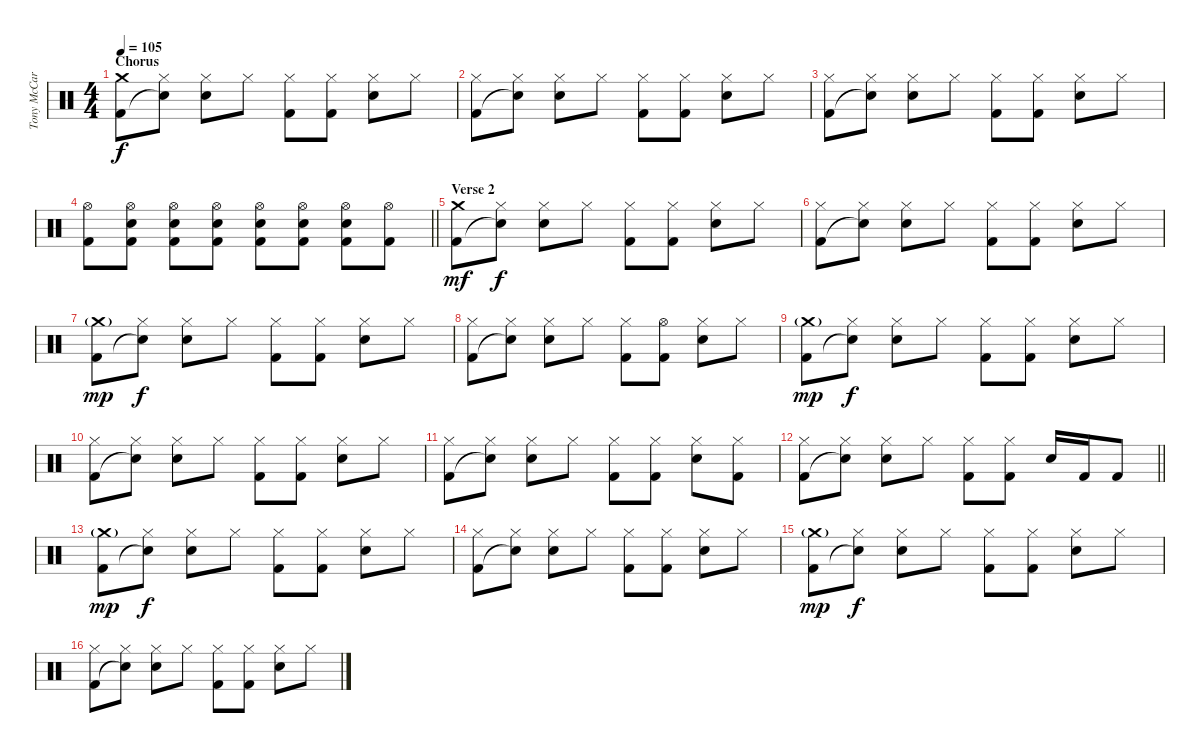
\track ("Tony McCaroll" "Tony McCar") {instrument percussion}
\staff {score}
\articulation defaults
\ts (4 4)
\section ("" "Chorus")
\tempo 105
\clef neutral
\ks c
("Crash medium (hit)" "Kick (hit) 2").8{dy f} ("Hi-Hat (closed)" "Snare (hit)"{t}).8 ("Hi-Hat (closed)" "Snare (hit) 2").8 "Hi-Hat (closed)".8 ("Hi-Hat (closed)" "Kick (hit) 2").8 ("Hi-Hat (closed)" "Kick (hit) 2").8 ("Hi-Hat (closed)" "Snare (hit) 2").8 "Hi-Hat (closed)".8 |
("Hi-Hat (closed)" "Kick (hit) 2").8 ("Hi-Hat (closed)" "Snare (hit)"{t}).8 ("Hi-Hat (closed)" "Snare (hit) 2").8 "Hi-Hat (closed)".8 ("Hi-Hat (closed)" "Kick (hit) 2").8 ("Hi-Hat (closed)" "Kick (hit) 2").8 ("Hi-Hat (closed)" "Snare (hit) 2").8 "Hi-Hat (closed)".8 |
("Hi-Hat (closed)" "Kick (hit) 2").8 ("Hi-Hat (closed)" "Snare (hit)"{t}).8 ("Hi-Hat (closed)" "Snare (hit) 2").8 "Hi-Hat (closed)".8 ("Hi-Hat (closed)" "Kick (hit) 2").8 ("Hi-Hat (closed)" "Kick (hit) 2").8 ("Hi-Hat (closed)" "Snare (hit) 2").8 "Hi-Hat (closed)".8 |
\barLineRight lightlight
("Hi-Hat (open)" "Kick (hit) 2").8 ("Hi-Hat (open)" "Snare (hit) 2" "Kick (hit) 2").8 ("Hi-Hat (open)" "Snare (hit) 2" "Kick (hit) 2").8 ("Hi-Hat (open)" "Snare (hit) 2" "Kick (hit) 2").8 ("Hi-Hat (open)" "Snare (hit) 2" "Kick (hit) 2").8 ("Hi-Hat (open)" "Snare (hit) 2" "Kick (hit) 2").8 ("Hi-Hat (open)" "Snare (hit) 2" "Kick (hit) 2").8 ("Hi-Hat (open)" "Kick (hit) 2").8 |
\section ("" "Verse 2")
("Crash medium (hit)" "Kick (hit) 2").8{dy mf} ("Hi-Hat (closed)" "Snare (hit)"{t}).8{dy f} ("Hi-Hat (closed)" "Snare (hit) 2").8 "Hi-Hat (closed)".8 ("Hi-Hat (closed)" "Kick (hit) 2").8 ("Hi-Hat (closed)" "Kick (hit) 2").8 ("Hi-Hat (closed)" "Snare (hit) 2").8 "Hi-Hat (closed)".8 |
("Hi-Hat (closed)" "Kick (hit) 2").8 ("Hi-Hat (closed)" "Snare (hit)"{t}).8 ("Hi-Hat (closed)" "Snare (hit) 2").8 "Hi-Hat (closed)".8 ("Hi-Hat (closed)" "Kick (hit) 2").8 ("Hi-Hat (closed)" "Kick (hit) 2").8 ("Hi-Hat (closed)" "Snare (hit) 2").8 "Hi-Hat (closed)".8 |
("Crash medium (hit)"{g} "Kick (hit) 2").8{dy mp} ("Hi-Hat (closed)" "Snare (hit)"{t}).8{dy f} ("Hi-Hat (closed)" "Snare (hit) 2").8 "Hi-Hat (closed)".8 ("Hi-Hat (closed)" "Kick (hit) 2").8 ("Hi-Hat (closed)" "Kick (hit) 2").8 ("Hi-Hat (closed)" "Snare (hit) 2").8 "Hi-Hat (closed)".8 |
("Hi-Hat (closed)" "Kick (hit) 2").8 ("Hi-Hat (closed)" "Snare (hit)"{t}).8 ("Hi-Hat (closed)" "Snare (hit) 2").8 "Hi-Hat (closed)".8 ("Hi-Hat (closed)" "Kick (hit) 2").8 ("Hi-Hat (open)" "Kick (hit) 2").8 ("Hi-Hat (closed)" "Snare (hit) 2").8 "Hi-Hat (closed)".8 |
("Crash medium (hit)"{g} "Kick (hit) 2").8{dy mp} ("Hi-Hat (closed)" "Snare (hit)"{t}).8{dy f} ("Hi-Hat (closed)" "Snare (hit) 2").8 "Hi-Hat (closed)".8 ("Hi-Hat (closed)" "Kick (hit) 2").8 ("Hi-Hat (closed)" "Kick (hit) 2").8 ("Hi-Hat (closed)" "Snare (hit) 2").8 "Hi-Hat (closed)".8 |
("Hi-Hat (closed)" "Kick (hit) 2").8 ("Hi-Hat (closed)" "Snare (hit)"{t}).8 ("Hi-Hat (closed)" "Snare (hit) 2").8 "Hi-Hat (closed)".8 ("Hi-Hat (closed)" "Kick (hit) 2").8 ("Hi-Hat (closed)" "Kick (hit) 2").8 ("Hi-Hat (closed)" "Snare (hit) 2").8 "Hi-Hat (closed)".8 |
("Hi-Hat (closed)" "Kick (hit) 2").8 ("Hi-Hat (closed)" "Snare (hit)"{t}).8 ("Hi-Hat (closed)" "Snare (hit) 2").8 "Hi-Hat (closed)".8 ("Hi-Hat (closed)" "Kick (hit) 2").8 ("Hi-Hat (closed)" "Kick (hit) 2").8 ("Hi-Hat (closed)" "Snare (hit) 2").8 ("Hi-Hat (closed)" "Kick (hit) 2").8 |
\barLineRight lightlight
("Hi-Hat (closed)" "Kick (hit) 2").8 ("Hi-Hat (closed)" "Snare (hit)"{t}).8 ("Hi-Hat (closed)" "Snare (hit) 2").8 "Hi-Hat (closed)".8 ("Hi-Hat (closed)" "Kick (hit) 2").8 ("Hi-Hat (closed)" "Kick (hit) 2").8 "Snare (hit) 2".16 "Kick (hit) 2".16 "Kick (hit) 2".8 |
("Crash medium (hit)"{g} "Kick (hit) 2").8{dy mp} ("Hi-Hat (closed)" "Snare (hit)"{t}).8{dy f} ("Hi-Hat (closed)" "Snare (hit) 2").8 "Hi-Hat (closed)".8 ("Hi-Hat (closed)" "Kick (hit) 2").8 ("Hi-Hat (closed)" "Kick (hit) 2").8 ("Hi-Hat (closed)" "Snare (hit) 2").8 "Hi-Hat (closed)".8 |
("Hi-Hat (closed)" "Kick (hit) 2").8 ("Hi-Hat (closed)" "Snare (hit)"{t}).8 ("Hi-Hat (closed)" "Snare (hit) 2").8 "Hi-Hat (closed)".8 ("Hi-Hat (closed)" "Kick (hit) 2").8 ("Hi-Hat (closed)" "Kick (hit) 2").8 ("Hi-Hat (closed)" "Snare (hit) 2").8 "Hi-Hat (closed)".8 |
("Crash medium (hit)"{g} "Kick (hit) 2").8{dy mp} ("Hi-Hat (closed)" "Snare (hit)"{t}).8{dy f} ("Hi-Hat (closed)" "Snare (hit) 2").8 "Hi-Hat (closed)".8 ("Hi-Hat (closed)" "Kick (hit) 2").8 ("Hi-Hat (closed)" "Kick (hit) 2").8 ("Hi-Hat (closed)" "Snare (hit) 2").8 "Hi-Hat (closed)".8 |
("Hi-Hat (closed)" "Kick (hit) 2").8 ("Hi-Hat (closed)" "Snare (hit)"{t}).8 ("Hi-Hat (closed)" "Snare (hit) 2").8 "Hi-Hat (closed)".8 ("Hi-Hat (closed)" "Kick (hit) 2").8 ("Hi-Hat (closed)" "Kick (hit) 2").8 ("Hi-Hat (closed)" "Snare (hit) 2").8 "Hi-Hat (closed)".8
